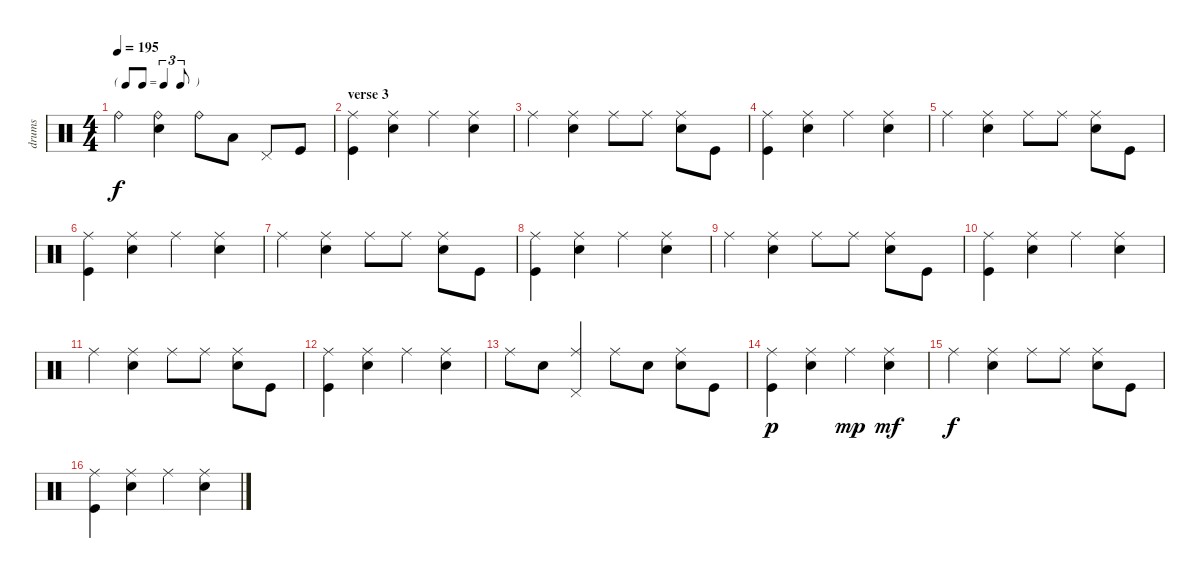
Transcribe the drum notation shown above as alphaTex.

\track ("drums" "drums") {instrument percussion}
\staff {score}
\articulation defaults
\ts (4 4)
\tf triplet8th
\tempo 195
\clef neutral
\ks c "Ride (bell)".4{dy f}
("Ride (bell)" "Snare (hit) 2").4 "Ride (bell)".8 "Low Tom (hit)".8 "Pedal Hi-Hat (hit)".8 "Kick (hit)".8 |
\section ("" "verse 3")
("Ride (middle)" "Kick (hit)").4 ("Ride (middle)" "Snare (hit) 2").4 "Ride (middle)".4 ("Ride (middle)" "Snare (hit) 2").4 |
"Ride (middle)".4 ("Ride (middle)" "Snare (hit) 2").4 "Ride (middle)".8 "Ride (middle)".8 ("Ride (middle)" "Snare (hit) 2").8 "Kick (hit)".8 |
("Ride (middle)" "Kick (hit)").4 ("Ride (middle)" "Snare (hit) 2").4 "Ride (middle)".4 ("Ride (middle)" "Snare (hit) 2").4 |
"Ride (middle)".4 ("Ride (middle)" "Snare (hit) 2").4 "Ride (middle)".8 "Ride (middle)".8 ("Ride (middle)" "Snare (hit) 2").8 "Kick (hit)".8 |
("Ride (middle)" "Kick (hit)").4 ("Ride (middle)" "Snare (hit) 2").4 "Ride (middle)".4 ("Ride (middle)" "Snare (hit) 2").4 |
"Ride (middle)".4 ("Ride (middle)" "Snare (hit) 2").4 "Ride (middle)".8 "Ride (middle)".8 ("Ride (middle)" "Snare (hit) 2").8 "Kick (hit)".8 |
("Ride (middle)" "Kick (hit)").4 ("Ride (middle)" "Snare (hit) 2").4 "Ride (middle)".4 ("Ride (middle)" "Snare (hit) 2").4 |
"Ride (middle)".4 ("Ride (middle)" "Snare (hit) 2").4 "Ride (middle)".8 "Ride (middle)".8 ("Ride (middle)" "Snare (hit) 2").8 "Kick (hit)".8 |
("Ride (middle)" "Kick (hit)").4 ("Ride (middle)" "Snare (hit) 2").4 "Ride (middle)".4 ("Ride (middle)" "Snare (hit) 2").4 |
"Ride (middle)".4 ("Ride (middle)" "Snare (hit) 2").4 "Ride (middle)".8 "Ride (middle)".8 ("Ride (middle)" "Snare (hit) 2").8 "Kick (hit)".8 |
("Ride (middle)" "Kick (hit)").4 ("Ride (middle)" "Snare (hit) 2").4 "Ride (middle)".4 ("Ride (middle)" "Snare (hit) 2").4 |
"Ride (middle)".8 "Snare (hit) 2".8 ("Ride (middle)" "Pedal Hi-Hat (hit)").4 "Ride (middle)".8 "Snare (hit) 2".8 ("Ride (middle)" "Snare (hit) 2").8 "Kick (hit)".8 |
("Ride (middle)" "Kick (hit)").4{dy p} ("Ride (middle)" "Snare (hit) 2").4 "Ride (middle)".4{dy mp} ("Ride (middle)" "Snare (hit) 2").4{dy mf} |
"Ride (middle)".4{dy f} ("Ride (middle)" "Snare (hit) 2").4 "Ride (middle)".8 "Ride (middle)".8 ("Ride (middle)" "Snare (hit) 2").8 "Kick (hit)".8 |
("Ride (middle)" "Kick (hit)").4 ("Ride (middle)" "Snare (hit) 2").4 "Ride (middle)".4 ("Ride (middle)" "Snare (hit) 2").4
